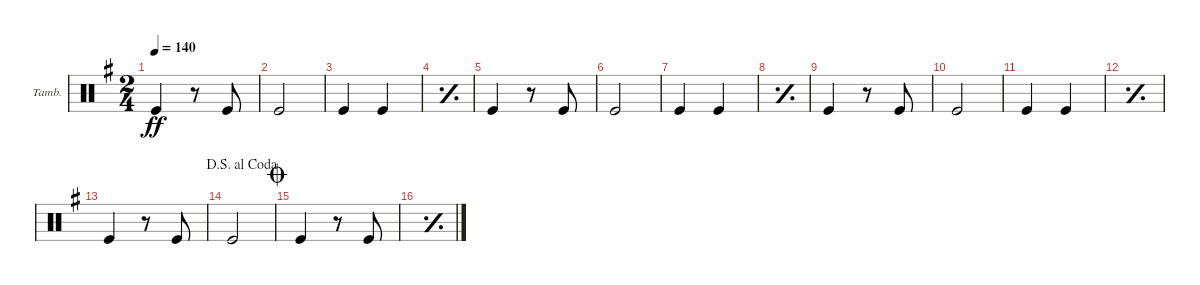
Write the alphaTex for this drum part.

\defaultSystemsLayout 4
\bracketExtendMode groupsimilarinstruments
\firstSystemTrackNameOrientation horizontal
\otherSystemsTrackNameOrientation horizontal
\track ("Tambourine" "Tamb.") {instrument percussion}
\staff {score}
\articulation defaults
\ts (2 4)
\tempo 140
\clef neutral
\ks g "Kick (hit)".4{dy ff}
r.8 "Kick (hit)".8 |
"Kick (hit)".2 |
"Kick (hit)".4 "Kick (hit)".4 |
\simile simple
|
\simile none "Kick (hit)".4
r.8 "Kick (hit)".8 |
"Kick (hit)".2 |
"Kick (hit)".4 "Kick (hit)".4 |
\simile simple
|
\simile none "Kick (hit)".4
r.8 "Kick (hit)".8 |
"Kick (hit)".2 |
"Kick (hit)".4 "Kick (hit)".4 |
\simile simple
|
\simile none "Kick (hit)".4
r.8 "Kick (hit)".8 |
\jump dalsegnoalcoda "Kick (hit)".2
|
\jump coda "Kick (hit)".4
r.8 "Kick (hit)".8 |
\simile simple
